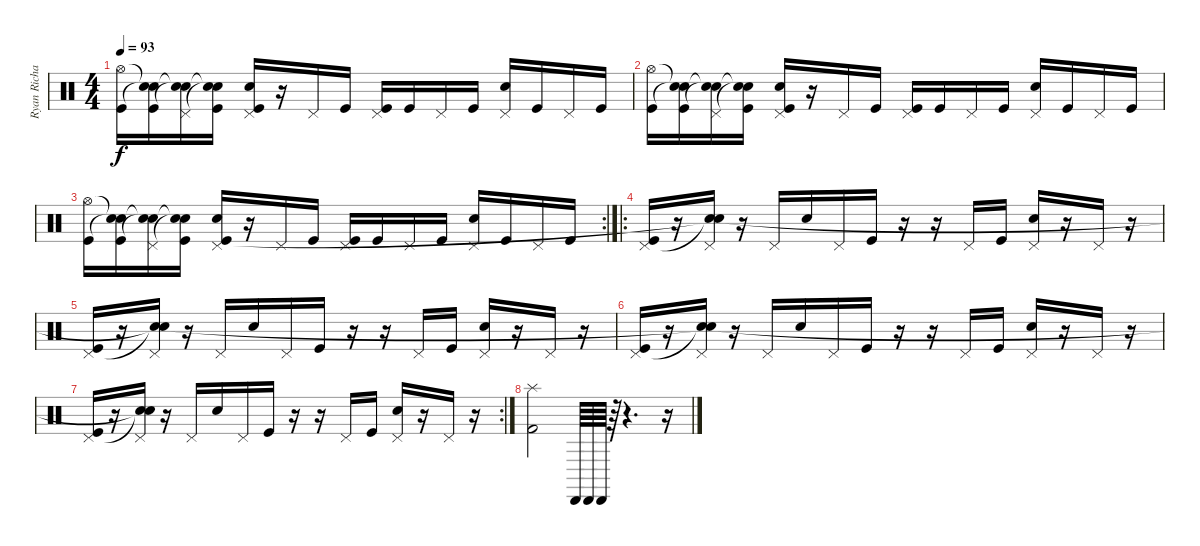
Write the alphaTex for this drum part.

\track ("Ryan Richards" "Ryan Richa") {instrument percussion}
\staff {score}
\articulation defaults
\ts (4 4)
\tempo 93
\clef neutral
\ks c
("Hi-Hat (open)" "Kick (hit)").16{dy f} ("Snare (hit)"{t} "Snare (hit)"{t} "Kick (hit)").16 ("Snare (hit)"{t} "Pedal Hi-Hat (hit)" "Snare (hit)"{t}).16 ("Snare (hit)"{t} "Snare (hit)"{t} "Kick (hit)").16 ("Pedal Hi-Hat (hit)" "Electric Snare (hit)" "Kick (hit)").16 r.16 "Pedal Hi-Hat (hit)".16 "Kick (hit)".16 ("Pedal Hi-Hat (hit)" "Kick (hit)").16 "Kick (hit)".16 "Pedal Hi-Hat (hit)".16 "Kick (hit)".16 ("Pedal Hi-Hat (hit)" "Electric Snare (hit)").16 "Kick (hit)".16 "Pedal Hi-Hat (hit)".16 "Kick (hit)".16 |
("Hi-Hat (open)" "Kick (hit)").16 ("Snare (hit)"{t} "Snare (hit)"{t} "Kick (hit)").16 ("Snare (hit)"{t} "Pedal Hi-Hat (hit)" "Snare (hit)"{t}).16 ("Snare (hit)"{t} "Snare (hit)"{t} "Kick (hit)").16 ("Pedal Hi-Hat (hit)" "Electric Snare (hit)" "Kick (hit)").16 r.16 "Pedal Hi-Hat (hit)".16 "Kick (hit)".16 ("Pedal Hi-Hat (hit)" "Kick (hit)").16 "Kick (hit)".16 "Pedal Hi-Hat (hit)".16 "Kick (hit)".16 ("Pedal Hi-Hat (hit)" "Electric Snare (hit)").16 "Kick (hit)".16 "Pedal Hi-Hat (hit)".16 "Kick (hit)".16 |
\rc 2
("Hi-Hat (open)" "Kick (hit)").16 ("Snare (hit)"{t} "Snare (hit)"{t} "Kick (hit)").16 ("Snare (hit)"{t} "Pedal Hi-Hat (hit)" "Snare (hit)"{t}).16 ("Snare (hit)"{t} "Snare (hit)"{t} "Kick (hit)").16 ("Pedal Hi-Hat (hit)" "Electric Snare (hit)" "Kick (hit)").16 r.16 "Pedal Hi-Hat (hit)".16 "Kick (hit)".16 ("Pedal Hi-Hat (hit)" "Kick (hit)").16 "Kick (hit)".16 "Pedal Hi-Hat (hit)".16 "Kick (hit)".16 ("Pedal Hi-Hat (hit)" "Electric Snare (hit)").16 "Kick (hit)".16 "Pedal Hi-Hat (hit)".16 "Kick (hit)".16 |
\ro
("Pedal Hi-Hat (hit)" "Kick (hit)").16 r.16 ("Snare (hit)"{t} "Pedal Hi-Hat (hit)" "Snare (hit)"{t}).16 r.16 "Pedal Hi-Hat (hit)".16 "Electric Snare (hit)".16 "Pedal Hi-Hat (hit)".16 "Kick (hit)".16 r.16 r.16 "Pedal Hi-Hat (hit)".16 "Kick (hit)".16 ("Pedal Hi-Hat (hit)" "Electric Snare (hit)").16 r.16 "Pedal Hi-Hat (hit)".16 r.16 |
("Pedal Hi-Hat (hit)" "Kick (hit)").16 r.16 ("Snare (hit)"{t} "Pedal Hi-Hat (hit)" "Snare (hit)"{t}).16 r.16 "Pedal Hi-Hat (hit)".16 "Electric Snare (hit)".16 "Pedal Hi-Hat (hit)".16 "Kick (hit)".16 r.16 r.16 "Pedal Hi-Hat (hit)".16 "Kick (hit)".16 ("Pedal Hi-Hat (hit)" "Electric Snare (hit)").16 r.16 "Pedal Hi-Hat (hit)".16 r.16 |
("Pedal Hi-Hat (hit)" "Kick (hit)").16 r.16 ("Snare (hit)"{t} "Pedal Hi-Hat (hit)" "Snare (hit)"{t}).16 r.16 "Pedal Hi-Hat (hit)".16 "Electric Snare (hit)".16 "Pedal Hi-Hat (hit)".16 "Kick (hit)".16 r.16 r.16 "Pedal Hi-Hat (hit)".16 "Kick (hit)".16 ("Pedal Hi-Hat (hit)" "Electric Snare (hit)").16 r.16 "Pedal Hi-Hat (hit)".16 r.16 |
\rc 2
("Pedal Hi-Hat (hit)" "Kick (hit)").16 r.16 ("Snare (hit)"{t} "Pedal Hi-Hat (hit)" "Snare (hit)"{t}).16 r.16 "Pedal Hi-Hat (hit)".16 "Electric Snare (hit)".16 "Pedal Hi-Hat (hit)".16 "Kick (hit)".16 r.16 r.16 "Pedal Hi-Hat (hit)".16 "Kick (hit)".16 ("Pedal Hi-Hat (hit)" "Electric Snare (hit)").16 r.16 "Pedal Hi-Hat (hit)".16 r.16 |
("Splash (hit)" "Kick (hit) 2").2 "Cabasa (hit)".64 "Cabasa (hit)".64 "Cabasa (hit)".64 r.64 r.4{d} r.16
